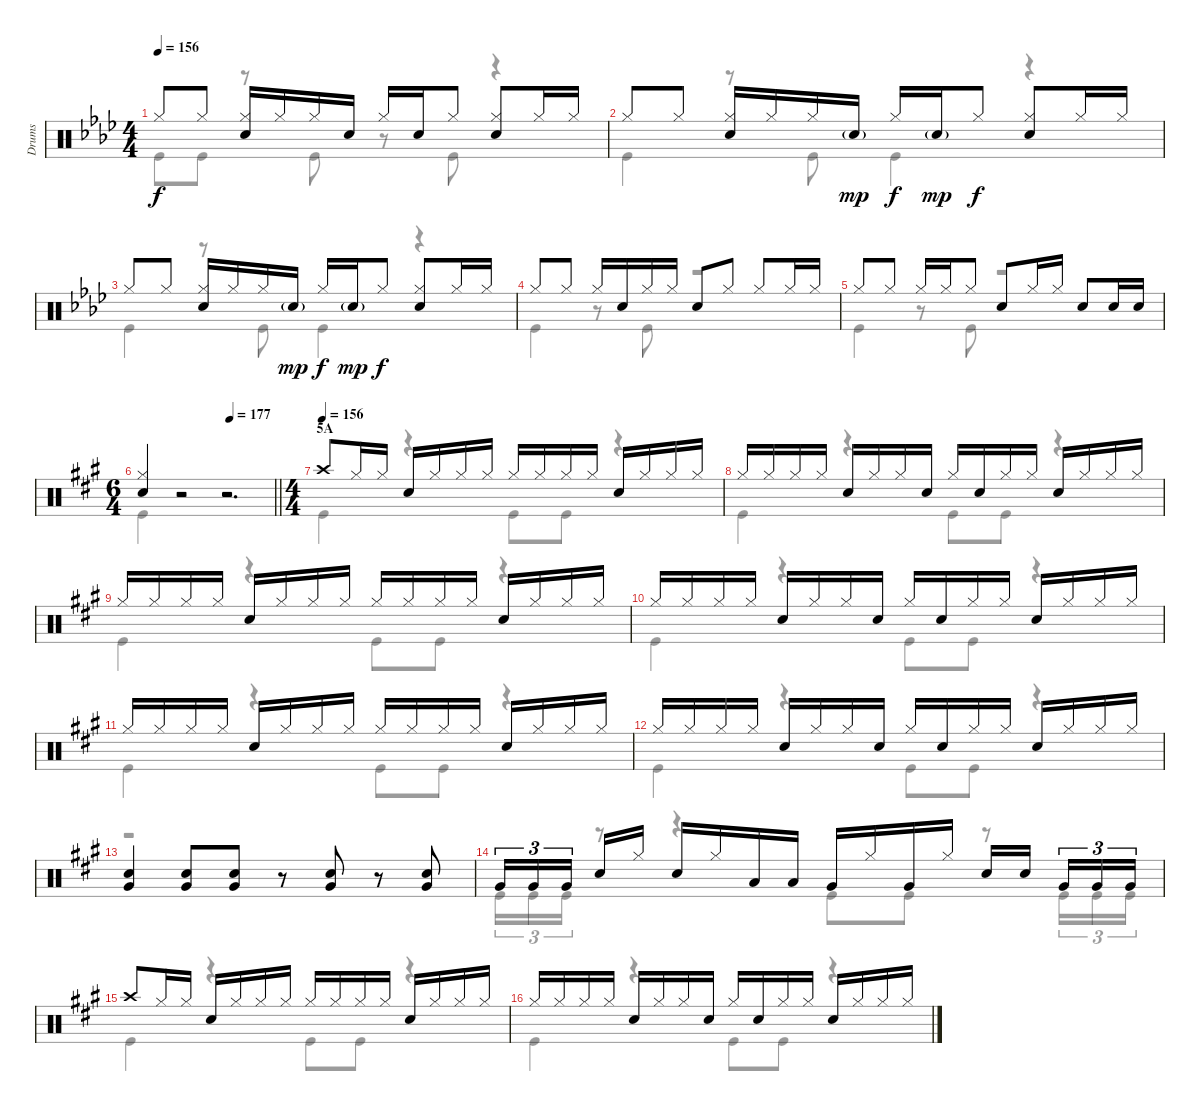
\track ("Drums" "Drums") {instrument percussion}
\staff {score}
\articulation defaults
\voice
\ts (4 4)
\tempo 156
\clef neutral
\ks ab "Hi-Hat (closed)".8{dy f} "Hi-Hat (closed)".8
("Hi-Hat (closed)" "Snare (hit) 2").16 "Hi-Hat (closed)".16 "Hi-Hat (closed)".16 "Snare (hit) 2".16 "Hi-Hat (closed)".16 "Snare (hit) 2".16 "Hi-Hat (closed)".8 ("Hi-Hat (closed)" "Snare (hit) 2").8 "Hi-Hat (closed)".16 "Hi-Hat (closed)".16 |
"Hi-Hat (closed)".8 "Hi-Hat (closed)".8 ("Hi-Hat (closed)" "Snare (hit) 2").16 "Hi-Hat (closed)".16 "Hi-Hat (closed)".16 "Snare (hit) 2"{g}.16{dy mp} "Hi-Hat (closed)".16{dy f} "Snare (hit) 2"{g}.16{dy mp} "Hi-Hat (closed)".8{dy f} ("Hi-Hat (closed)" "Snare (hit) 2").8 "Hi-Hat (closed)".16 "Hi-Hat (closed)".16 |
"Hi-Hat (closed)".8 "Hi-Hat (closed)".8 ("Hi-Hat (closed)" "Snare (hit) 2").16 "Hi-Hat (closed)".16 "Hi-Hat (closed)".16 "Snare (hit) 2"{g}.16{dy mp} "Hi-Hat (closed)".16{dy f} "Snare (hit) 2"{g}.16{dy mp} "Hi-Hat (closed)".8{dy f} ("Hi-Hat (closed)" "Snare (hit) 2").8 "Hi-Hat (closed)".16 "Hi-Hat (closed)".16 |
"Hi-Hat (closed)".8 "Hi-Hat (closed)".8 "Hi-Hat (closed)".16 "Snare (hit) 2".16 "Hi-Hat (closed)".16 "Hi-Hat (closed)".16 "Snare (hit) 2".8 "Hi-Hat (closed)".8 "Hi-Hat (closed)".8 "Hi-Hat (closed)".16 "Hi-Hat (closed)".16 |
"Hi-Hat (closed)".8 "Hi-Hat (closed)".8 "Hi-Hat (closed)".16 "Hi-Hat (closed)".16 "Hi-Hat (closed)".8 "Snare (hit) 2".8 "Hi-Hat (closed)".16 "Hi-Hat (closed)".16 "Snare (hit) 2".8 "Snare (hit) 2".16 "Snare (hit) 2".16 |
\ts (6 4)
\tempo (177 0.6666666666666666)
\barLineRight lightlight
\ks a
("Hi-Hat (closed)" "Snare (hit) 2").4 r.2 r.2{d} |
\ts (4 4)
\section ("" "5A")
\tempo (156)
"Crash high (hit)".8 "Hi-Hat (closed)".16 "Hi-Hat (closed)".16 "Snare (hit) 2".16 "Hi-Hat (closed)".16 "Hi-Hat (closed)".16 "Hi-Hat (closed)".16 "Hi-Hat (closed)".16 "Hi-Hat (closed)".16 "Hi-Hat (closed)".16 "Hi-Hat (closed)".16 "Snare (hit) 2".16 "Hi-Hat (closed)".16 "Hi-Hat (closed)".16 "Hi-Hat (closed)".16 |
"Hi-Hat (closed)".16 "Hi-Hat (closed)".16 "Hi-Hat (closed)".16 "Hi-Hat (closed)".16 "Snare (hit) 2".16 "Hi-Hat (closed)".16 "Hi-Hat (closed)".16 "Snare (hit) 2".16 "Hi-Hat (closed)".16 "Snare (hit) 2".16 "Hi-Hat (closed)".16 "Hi-Hat (closed)".16 "Snare (hit) 2".16 "Hi-Hat (closed)".16 "Hi-Hat (closed)".16 "Hi-Hat (closed)".16 |
"Hi-Hat (closed)".16 "Hi-Hat (closed)".16 "Hi-Hat (closed)".16 "Hi-Hat (closed)".16 "Snare (hit) 2".16 "Hi-Hat (closed)".16 "Hi-Hat (closed)".16 "Hi-Hat (closed)".16 "Hi-Hat (closed)".16 "Hi-Hat (closed)".16 "Hi-Hat (closed)".16 "Hi-Hat (closed)".16 "Snare (hit) 2".16 "Hi-Hat (closed)".16 "Hi-Hat (closed)".16 "Hi-Hat (closed)".16 |
"Hi-Hat (closed)".16 "Hi-Hat (closed)".16 "Hi-Hat (closed)".16 "Hi-Hat (closed)".16 "Snare (hit) 2".16 "Hi-Hat (closed)".16 "Hi-Hat (closed)".16 "Snare (hit) 2".16 "Hi-Hat (closed)".16 "Snare (hit) 2".16 "Hi-Hat (closed)".16 "Hi-Hat (closed)".16 "Snare (hit) 2".16 "Hi-Hat (closed)".16 "Hi-Hat (closed)".16 "Hi-Hat (closed)".16 |
"Hi-Hat (closed)".16 "Hi-Hat (closed)".16 "Hi-Hat (closed)".16 "Hi-Hat (closed)".16 "Snare (hit) 2".16 "Hi-Hat (closed)".16 "Hi-Hat (closed)".16 "Hi-Hat (closed)".16 "Hi-Hat (closed)".16 "Hi-Hat (closed)".16 "Hi-Hat (closed)".16 "Hi-Hat (closed)".16 "Snare (hit) 2".16 "Hi-Hat (closed)".16 "Hi-Hat (closed)".16 "Hi-Hat (closed)".16 |
"Hi-Hat (closed)".16 "Hi-Hat (closed)".16 "Hi-Hat (closed)".16 "Hi-Hat (closed)".16 "Snare (hit) 2".16 "Hi-Hat (closed)".16 "Hi-Hat (closed)".16 "Snare (hit) 2".16 "Hi-Hat (closed)".16 "Snare (hit) 2".16 "Hi-Hat (closed)".16 "Hi-Hat (closed)".16 "Snare (hit) 2".16 "Hi-Hat (closed)".16 "Hi-Hat (closed)".16 "Hi-Hat (closed)".16 |
("Snare (hit) 2" "Very Low Tom (hit)").4 ("Snare (hit) 2" "Very Low Tom (hit)").8 ("Snare (hit) 2" "Very Low Tom (hit)").8 r.8 ("Snare (hit) 2" "Very Low Tom (hit)").8 r.8 ("Snare (hit) 2" "Very Low Tom (hit)").8 |
"Very Low Tom (hit)".16{tu (3 2)} "Very Low Tom (hit)".16{tu (3 2)} "Very Low Tom (hit)".16{tu (3 2) beam splitsecondary} "Snare (hit) 2".16 "Hi-Hat (closed)".16 "Snare (hit) 2".16 "Hi-Hat (closed)".16 "Low Tom (hit)".16 "Low Tom (hit)".16 "Very Low Tom (hit)".16 "Hi-Hat (closed)".16 "Very Low Tom (hit)".16 "Hi-Hat (closed)".16 "Snare (hit) 2".16 "Snare (hit) 2".16{beam splitsecondary} "Very Low Tom (hit)".16{tu (3 2)} "Very Low Tom (hit)".16{tu (3 2)} "Very Low Tom (hit)".16{tu (3 2)} |
"Crash high (hit)".8 "Hi-Hat (closed)".16 "Hi-Hat (closed)".16 "Snare (hit) 2".16 "Hi-Hat (closed)".16 "Hi-Hat (closed)".16 "Hi-Hat (closed)".16 "Hi-Hat (closed)".16 "Hi-Hat (closed)".16 "Hi-Hat (closed)".16 "Hi-Hat (closed)".16 "Snare (hit) 2".16 "Hi-Hat (closed)".16 "Hi-Hat (closed)".16 "Hi-Hat (closed)".16 |
"Hi-Hat (closed)".16 "Hi-Hat (closed)".16 "Hi-Hat (closed)".16 "Hi-Hat (closed)".16 "Snare (hit) 2".16 "Hi-Hat (closed)".16 "Hi-Hat (closed)".16 "Snare (hit) 2".16 "Hi-Hat (closed)".16 "Snare (hit) 2".16 "Hi-Hat (closed)".16 "Hi-Hat (closed)".16 "Snare (hit) 2".16 "Hi-Hat (closed)".16 "Hi-Hat (closed)".16 "Hi-Hat (closed)".16
\voice
\clef neutral
\ottava regular
\simile none
\ks ab "Kick (hit)".8{dy f} "Kick (hit)".8
r.8 "Kick (hit)".8 r.8 "Kick (hit)".8 r.4 |
"Kick (hit)".4 r.8 "Kick (hit)".8 "Kick (hit)".4 r.4 |
"Kick (hit)".4 r.8 "Kick (hit)".8 "Kick (hit)".4 r.4 |
"Kick (hit)".4 r.8 "Kick (hit)".8 r.2 |
"Kick (hit)".4 r.8 "Kick (hit)".8 r.2 |
\barLineRight lightlight
\ks a "Kick (hit)".4
r.2 r.2{d} |
"Kick (hit)".4 r.4 "Kick (hit)".8 "Kick (hit)".8 r.4 |
"Kick (hit)".4 r.4 "Kick (hit)".8 "Kick (hit)".8 r.4 |
"Kick (hit)".4 r.4 "Kick (hit)".8 "Kick (hit)".8 r.4 |
"Kick (hit)".4 r.4 "Kick (hit)".8 "Kick (hit)".8 r.4 |
"Kick (hit)".4 r.4 "Kick (hit)".8 "Kick (hit)".8 r.4 |
"Kick (hit)".4 r.4 "Kick (hit)".8 "Kick (hit)".8 r.4 |
r.1 |
"Kick (hit)".16{tu (3 2)} "Kick (hit)".16{tu (3 2)} "Kick (hit)".16{tu (3 2)} r.8 r.4 "Kick (hit)".8 "Kick (hit)".8 r.8 "Kick (hit)".16{tu (3 2)} "Kick (hit)".16{tu (3 2)} "Kick (hit)".16{tu (3 2)} |
"Kick (hit)".4 r.4 "Kick (hit)".8 "Kick (hit)".8 r.4 |
"Kick (hit)".4 r.4 "Kick (hit)".8 "Kick (hit)".8 r.4
